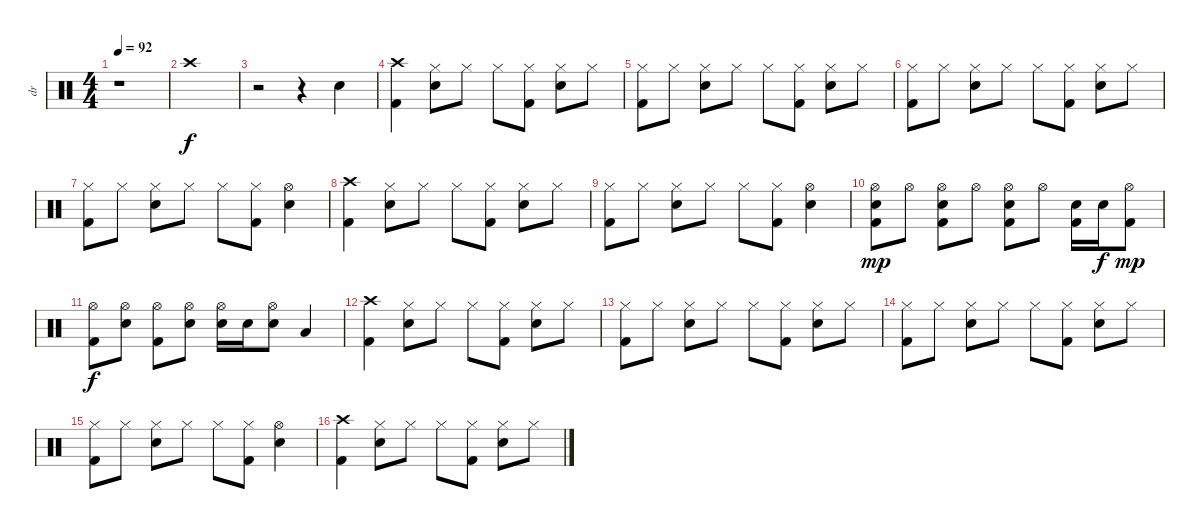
\track ("dr" "dr") {instrument percussion}
\staff {score}
\articulation defaults
\ts (4 4)
\tempo 92
\clef neutral
\ks c
r.1{dy f} |
"Crash high (hit)".1 |
r.2 r.4 "Electric Snare (hit)".4 |
("Crash high (hit)" "Kick (hit) 2").4 ("Hi-Hat (closed)" "Electric Snare (hit)").8 "Hi-Hat (closed)".8 "Hi-Hat (closed)".8 ("Hi-Hat (closed)" "Kick (hit) 2").8 ("Hi-Hat (closed)" "Electric Snare (hit)").8 "Hi-Hat (closed)".8 |
("Hi-Hat (closed)" "Kick (hit) 2").8 "Hi-Hat (closed)".8 ("Hi-Hat (closed)" "Electric Snare (hit)").8 "Hi-Hat (closed)".8 "Hi-Hat (closed)".8 ("Hi-Hat (closed)" "Kick (hit) 2").8 ("Hi-Hat (closed)" "Electric Snare (hit)").8 "Hi-Hat (closed)".8 |
("Hi-Hat (closed)" "Kick (hit) 2").8 "Hi-Hat (closed)".8 ("Hi-Hat (closed)" "Electric Snare (hit)").8 "Hi-Hat (closed)".8 "Hi-Hat (closed)".8 ("Hi-Hat (closed)" "Kick (hit) 2").8 ("Hi-Hat (closed)" "Electric Snare (hit)").8 "Hi-Hat (closed)".8 |
("Hi-Hat (closed)" "Kick (hit) 2").8 "Hi-Hat (closed)".8 ("Hi-Hat (closed)" "Electric Snare (hit)").8 "Hi-Hat (closed)".8 "Hi-Hat (closed)".8 ("Hi-Hat (closed)" "Kick (hit) 2").8 ("Hi-Hat (open)" "Electric Snare (hit)").4 |
("Crash high (hit)" "Kick (hit) 2").4 ("Hi-Hat (closed)" "Electric Snare (hit)").8 "Hi-Hat (closed)".8 "Hi-Hat (closed)".8 ("Hi-Hat (closed)" "Kick (hit) 2").8 ("Hi-Hat (closed)" "Electric Snare (hit)").8 "Hi-Hat (closed)".8 |
("Hi-Hat (closed)" "Kick (hit) 2").8 "Hi-Hat (closed)".8 ("Hi-Hat (closed)" "Electric Snare (hit)").8 "Hi-Hat (closed)".8 "Hi-Hat (closed)".8 ("Hi-Hat (closed)" "Kick (hit) 2").8 ("Hi-Hat (open)" "Electric Snare (hit)").4 |
("Hi-Hat (open)" "Electric Snare (hit)" "Kick (hit) 2").8{dy mp} "Hi-Hat (open)".8 ("Hi-Hat (open)" "Electric Snare (hit)" "Kick (hit) 2").8 "Hi-Hat (open)".8 ("Hi-Hat (open)" "Electric Snare (hit)" "Kick (hit) 2").8 "Hi-Hat (open)".8 ("Electric Snare (hit)" "Kick (hit) 2").16 "Electric Snare (hit)".16{dy f} ("Hi-Hat (open)" "Kick (hit) 2").8{dy mp} |
("Hi-Hat (open)" "Kick (hit) 2").8{dy f} ("Hi-Hat (open)" "Electric Snare (hit)").8 ("Hi-Hat (open)" "Kick (hit) 2").8 ("Hi-Hat (open)" "Electric Snare (hit)").8 ("Hi-Hat (open)" "Electric Snare (hit)").16 "Electric Snare (hit)".16 ("Hi-Hat (open)" "Electric Snare (hit)").8 "Low Floor Tom (hit)".4 |
("Crash high (hit)" "Kick (hit) 2").4 ("Hi-Hat (closed)" "Electric Snare (hit)").8 "Hi-Hat (closed)".8 "Hi-Hat (closed)".8 ("Hi-Hat (closed)" "Kick (hit) 2").8 ("Hi-Hat (closed)" "Electric Snare (hit)").8 "Hi-Hat (closed)".8 |
("Hi-Hat (closed)" "Kick (hit) 2").8 "Hi-Hat (closed)".8 ("Hi-Hat (closed)" "Electric Snare (hit)").8 "Hi-Hat (closed)".8 "Hi-Hat (closed)".8 ("Hi-Hat (closed)" "Kick (hit) 2").8 ("Hi-Hat (closed)" "Electric Snare (hit)").8 "Hi-Hat (closed)".8 |
("Hi-Hat (closed)" "Kick (hit) 2").8 "Hi-Hat (closed)".8 ("Hi-Hat (closed)" "Electric Snare (hit)").8 "Hi-Hat (closed)".8 "Hi-Hat (closed)".8 ("Hi-Hat (closed)" "Kick (hit) 2").8 ("Hi-Hat (closed)" "Electric Snare (hit)").8 "Hi-Hat (closed)".8 |
("Hi-Hat (closed)" "Kick (hit) 2").8 "Hi-Hat (closed)".8 ("Hi-Hat (closed)" "Electric Snare (hit)").8 "Hi-Hat (closed)".8 "Hi-Hat (closed)".8 ("Hi-Hat (closed)" "Kick (hit) 2").8 ("Hi-Hat (open)" "Electric Snare (hit)").4 |
("Crash high (hit)" "Kick (hit) 2").4 ("Hi-Hat (closed)" "Electric Snare (hit)").8 "Hi-Hat (closed)".8 "Hi-Hat (closed)".8 ("Hi-Hat (closed)" "Kick (hit) 2").8 ("Hi-Hat (closed)" "Electric Snare (hit)").8 "Hi-Hat (closed)".8
